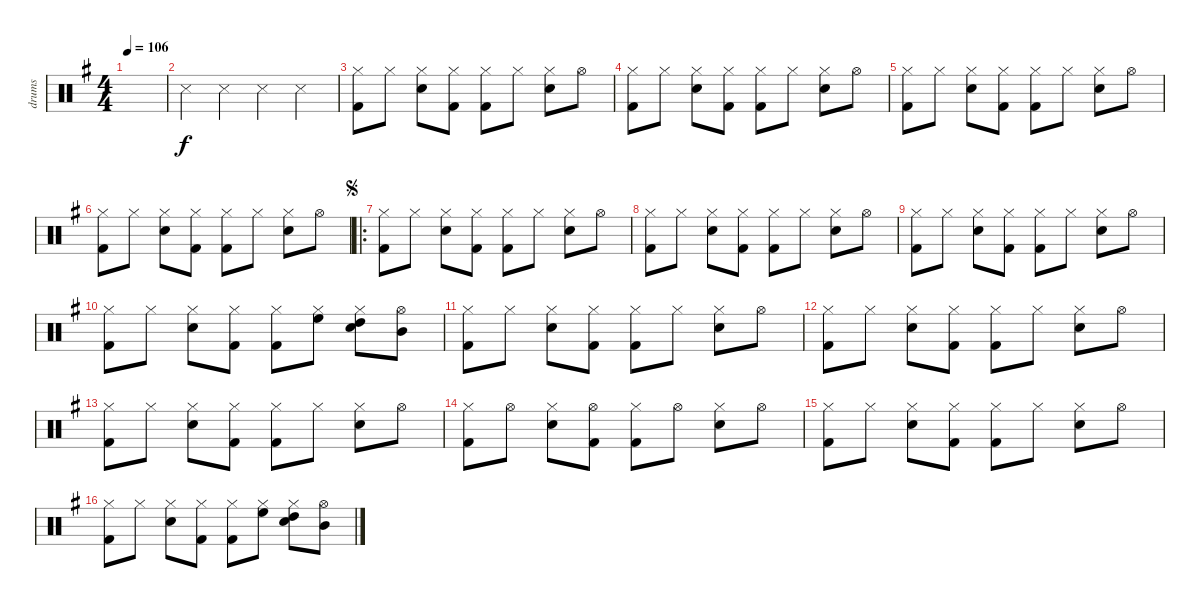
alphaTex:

\track ("drums" "drums") {instrument percussion}
\staff {score}
\articulation defaults
\ts (4 4)
\tempo 106
\clef neutral
\ks g
|
"Snare (side stick) 3".4 "Snare (side stick) 3".4 "Snare (side stick) 3".4 "Snare (side stick) 3".4 |
("Hi-Hat (closed)" "Kick (hit) 2").8 "Hi-Hat (closed)".8 ("Hi-Hat (closed)" "Snare (hit) 2").8 ("Hi-Hat (closed)" "Kick (hit) 2").8 ("Hi-Hat (closed)" "Kick (hit) 2").8 "Hi-Hat (closed)".8 ("Hi-Hat (closed)" "Snare (hit) 2").8 "Hi-Hat (open)".8 |
("Hi-Hat (closed)" "Kick (hit) 2").8 "Hi-Hat (closed)".8 ("Hi-Hat (closed)" "Snare (hit) 2").8 ("Hi-Hat (closed)" "Kick (hit) 2").8 ("Hi-Hat (closed)" "Kick (hit) 2").8 "Hi-Hat (closed)".8 ("Hi-Hat (closed)" "Snare (hit) 2").8 "Hi-Hat (open)".8 |
("Hi-Hat (closed)" "Kick (hit) 2").8 "Hi-Hat (closed)".8 ("Hi-Hat (closed)" "Snare (hit) 2").8 ("Hi-Hat (closed)" "Kick (hit) 2").8 ("Hi-Hat (closed)" "Kick (hit) 2").8 "Hi-Hat (closed)".8 ("Hi-Hat (closed)" "Snare (hit) 2").8 "Hi-Hat (open)".8 |
("Hi-Hat (closed)" "Kick (hit) 2").8 "Hi-Hat (closed)".8 ("Hi-Hat (closed)" "Snare (hit) 2").8 ("Hi-Hat (closed)" "Kick (hit) 2").8 ("Hi-Hat (closed)" "Kick (hit) 2").8 "Hi-Hat (closed)".8 ("Hi-Hat (closed)" "Snare (hit) 2").8 "Hi-Hat (open)".8 |
\ro
\jump segno
("Hi-Hat (closed)" "Kick (hit) 2").8 "Hi-Hat (closed)".8 ("Hi-Hat (closed)" "Snare (hit) 2").8 ("Hi-Hat (closed)" "Kick (hit) 2").8 ("Hi-Hat (closed)" "Kick (hit) 2").8 "Hi-Hat (closed)".8 ("Hi-Hat (closed)" "Snare (hit) 2").8 "Hi-Hat (open)".8 |
("Hi-Hat (closed)" "Kick (hit) 2").8 "Hi-Hat (closed)".8 ("Hi-Hat (closed)" "Snare (hit) 2").8 ("Hi-Hat (closed)" "Kick (hit) 2").8 ("Hi-Hat (closed)" "Kick (hit) 2").8 "Hi-Hat (closed)".8 ("Hi-Hat (closed)" "Snare (hit) 2").8 "Hi-Hat (open)".8 |
("Hi-Hat (closed)" "Kick (hit) 2").8 "Hi-Hat (closed)".8 ("Hi-Hat (closed)" "Snare (hit) 2").8 ("Hi-Hat (closed)" "Kick (hit) 2").8 ("Hi-Hat (closed)" "Kick (hit) 2").8 "Hi-Hat (closed)".8 ("Hi-Hat (closed)" "Snare (hit) 2").8 "Hi-Hat (open)".8 |
("Hi-Hat (closed)" "Kick (hit) 2").8 "Hi-Hat (closed)".8 ("Hi-Hat (closed)" "Snare (hit) 2").8 ("Hi-Hat (closed)" "Kick (hit) 2").8 ("Hi-Hat (closed)" "Kick (hit) 2").8 ("Hi-Hat (closed)" "High Floor Tom (hit)").8 ("Hi-Hat (closed)" "High Tom (hit)" "Snare (hit) 2").8 ("Hi-Hat (open)" "Mid Tom (hit)").8 |
("Hi-Hat (closed)" "Kick (hit) 2").8 "Hi-Hat (closed)".8 ("Hi-Hat (closed)" "Snare (hit) 2").8 ("Hi-Hat (closed)" "Kick (hit) 2").8 ("Hi-Hat (closed)" "Kick (hit) 2").8 "Hi-Hat (closed)".8 ("Hi-Hat (closed)" "Snare (hit) 2").8 "Hi-Hat (open)".8 |
("Hi-Hat (closed)" "Kick (hit) 2").8 "Hi-Hat (closed)".8 ("Hi-Hat (closed)" "Snare (hit) 2").8 ("Hi-Hat (closed)" "Kick (hit) 2").8 ("Hi-Hat (closed)" "Kick (hit) 2").8 "Hi-Hat (closed)".8 ("Hi-Hat (closed)" "Snare (hit) 2").8 "Hi-Hat (open)".8 |
("Hi-Hat (closed)" "Kick (hit) 2").8 "Hi-Hat (closed)".8 ("Hi-Hat (closed)" "Snare (hit) 2").8 ("Hi-Hat (closed)" "Kick (hit) 2").8 ("Hi-Hat (closed)" "Kick (hit) 2").8 "Hi-Hat (closed)".8 ("Hi-Hat (closed)" "Snare (hit) 2").8 "Hi-Hat (open)".8 |
("Hi-Hat (closed)" "Kick (hit) 2").8 "Hi-Hat (open)".8 ("Hi-Hat (closed)" "Snare (hit) 2").8 ("Hi-Hat (open)" "Kick (hit) 2").8 ("Hi-Hat (closed)" "Kick (hit) 2").8 "Hi-Hat (open)".8 ("Hi-Hat (closed)" "Snare (hit) 2").8 "Hi-Hat (open)".8 |
("Hi-Hat (closed)" "Kick (hit) 2").8 "Hi-Hat (closed)".8 ("Hi-Hat (closed)" "Snare (hit) 2").8 ("Hi-Hat (closed)" "Kick (hit) 2").8 ("Hi-Hat (closed)" "Kick (hit) 2").8 "Hi-Hat (closed)".8 ("Hi-Hat (closed)" "Snare (hit) 2").8 "Hi-Hat (open)".8 |
("Hi-Hat (closed)" "Kick (hit) 2").8 "Hi-Hat (closed)".8 ("Hi-Hat (closed)" "Snare (hit) 2").8 ("Hi-Hat (closed)" "Kick (hit) 2").8 ("Hi-Hat (closed)" "Kick (hit) 2").8 ("Hi-Hat (closed)" "High Floor Tom (hit)").8 ("Hi-Hat (closed)" "High Tom (hit)" "Snare (hit) 2").8 ("Hi-Hat (open)" "Mid Tom (hit)").8
